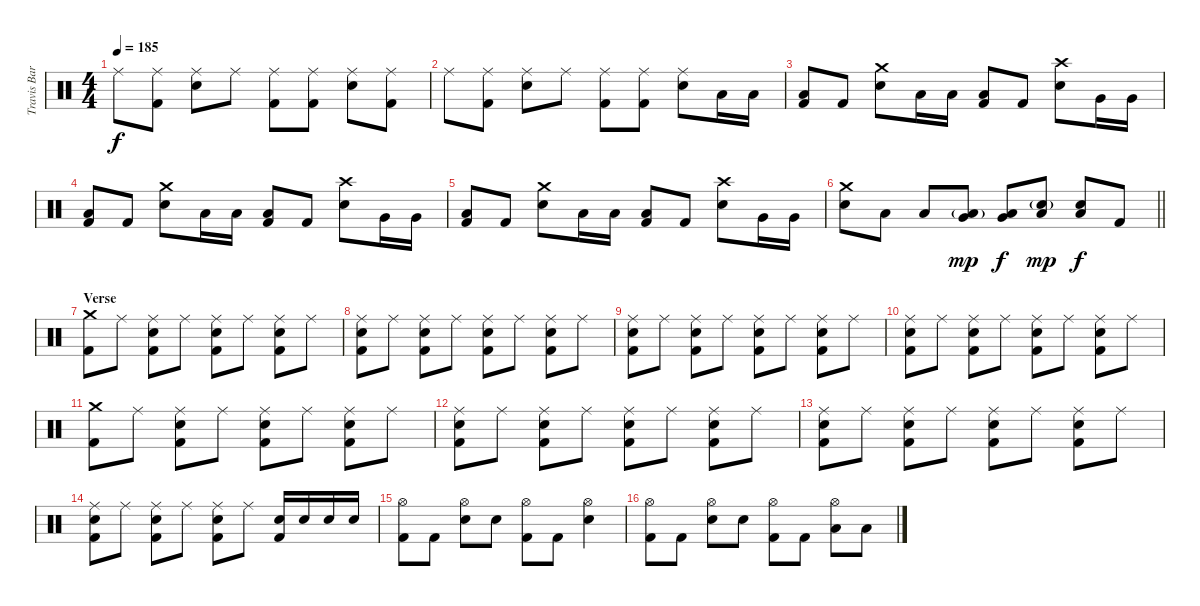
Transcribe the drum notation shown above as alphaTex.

\track ("Travis Barker - Drums" "Travis Bar") {instrument percussion}
\staff {score}
\articulation defaults
\ts (4 4)
\tempo 185
\clef neutral
\ks c "Ride (middle)".8{dy f}
("Ride (middle)" "Kick (hit) 2").8 ("Ride (middle)" "Electric Snare (hit)").8 "Ride (middle)".8 ("Ride (middle)" "Kick (hit) 2").8 ("Ride (middle)" "Kick (hit) 2").8 ("Ride (middle)" "Electric Snare (hit)").8 ("Ride (middle)" "Kick (hit) 2").8 |
"Ride (middle)".8 ("Ride (middle)" "Kick (hit) 2").8 ("Ride (middle)" "Electric Snare (hit)").8 "Ride (middle)".8 ("Ride (middle)" "Kick (hit) 2").8 ("Ride (middle)" "Kick (hit) 2").8 ("Ride (middle)" "Electric Snare (hit)").8 "Low Tom (hit)".16 "Low Tom (hit)".16 |
("Low Floor Tom (hit)" "Kick (hit) 2").8 "Kick (hit) 2".8 ("Crash medium (hit)" "Electric Snare (hit)").8 "Low Tom (hit)".16 "Low Tom (hit)".16 ("Low Floor Tom (hit)" "Kick (hit) 2").8 "Kick (hit) 2".8 ("Crash high (hit)" "Electric Snare (hit)").8 "Very Low Tom (hit)".16 "Very Low Tom (hit)".16 |
("Low Floor Tom (hit)" "Kick (hit) 2").8 "Kick (hit) 2".8 ("Crash medium (hit)" "Electric Snare (hit)").8 "Low Tom (hit)".16 "Low Tom (hit)".16 ("Low Floor Tom (hit)" "Kick (hit) 2").8 "Kick (hit) 2".8 ("Crash high (hit)" "Electric Snare (hit)").8 "Very Low Tom (hit)".16 "Very Low Tom (hit)".16 |
("Low Floor Tom (hit)" "Kick (hit) 2").8 "Kick (hit) 2".8 ("Crash medium (hit)" "Electric Snare (hit)").8 "Low Tom (hit)".16 "Low Tom (hit)".16 ("Low Floor Tom (hit)" "Kick (hit) 2").8 "Kick (hit) 2".8 ("Crash high (hit)" "Electric Snare (hit)").8 "Very Low Tom (hit)".16 "Very Low Tom (hit)".16 |
\barLineRight lightlight
("Crash medium (hit)" "Electric Snare (hit)").8 "Low Floor Tom (hit)".8 "Low Floor Tom (hit)".8 ("Low Tom (hit)"{g} "Very Low Tom (hit)").8{dy mp} ("Low Tom (hit)" "Very Low Tom (hit)").8{dy f} ("Electric Snare (hit)"{g} "Low Tom (hit)").8{dy mp} ("Electric Snare (hit)" "Low Tom (hit)").8{dy f} "Kick (hit) 2".8 |
\section ("" "Verse")
("Crash medium (hit)" "Kick (hit) 2").8 "Ride (middle)".8 ("Ride (middle)" "Electric Snare (hit)" "Kick (hit) 2").8 "Ride (middle)".8 ("Ride (middle)" "Electric Snare (hit)" "Kick (hit) 2").8 "Ride (middle)".8 ("Ride (middle)" "Electric Snare (hit)" "Kick (hit) 2").8 "Ride (middle)".8 |
("Ride (middle)" "Electric Snare (hit)" "Kick (hit) 2").8 "Ride (middle)".8 ("Ride (middle)" "Electric Snare (hit)" "Kick (hit) 2").8 "Ride (middle)".8 ("Ride (middle)" "Electric Snare (hit)" "Kick (hit) 2").8 "Ride (middle)".8 ("Ride (middle)" "Electric Snare (hit)" "Kick (hit) 2").8 "Ride (middle)".8 |
("Ride (middle)" "Electric Snare (hit)" "Kick (hit) 2").8 "Ride (middle)".8 ("Ride (middle)" "Electric Snare (hit)" "Kick (hit) 2").8 "Ride (middle)".8 ("Ride (middle)" "Electric Snare (hit)" "Kick (hit) 2").8 "Ride (middle)".8 ("Ride (middle)" "Electric Snare (hit)" "Kick (hit) 2").8 "Ride (middle)".8 |
("Ride (middle)" "Electric Snare (hit)" "Kick (hit) 2").8 "Ride (middle)".8 ("Ride (middle)" "Electric Snare (hit)" "Kick (hit) 2").8 "Ride (middle)".8 ("Ride (middle)" "Electric Snare (hit)" "Kick (hit) 2").8 "Ride (middle)".8 ("Ride (middle)" "Electric Snare (hit)" "Kick (hit) 2").8 "Ride (middle)".8 |
("Crash medium (hit)" "Kick (hit) 2").8 "Ride (middle)".8 ("Ride (middle)" "Electric Snare (hit)" "Kick (hit) 2").8 "Ride (middle)".8 ("Ride (middle)" "Electric Snare (hit)" "Kick (hit) 2").8 "Ride (middle)".8 ("Ride (middle)" "Electric Snare (hit)" "Kick (hit) 2").8 "Ride (middle)".8 |
("Ride (middle)" "Electric Snare (hit)" "Kick (hit) 2").8 "Ride (middle)".8 ("Ride (middle)" "Electric Snare (hit)" "Kick (hit) 2").8 "Ride (middle)".8 ("Ride (middle)" "Electric Snare (hit)" "Kick (hit) 2").8 "Ride (middle)".8 ("Ride (middle)" "Electric Snare (hit)" "Kick (hit) 2").8 "Ride (middle)".8 |
("Ride (middle)" "Electric Snare (hit)" "Kick (hit) 2").8 "Ride (middle)".8 ("Ride (middle)" "Electric Snare (hit)" "Kick (hit) 2").8 "Ride (middle)".8 ("Ride (middle)" "Electric Snare (hit)" "Kick (hit) 2").8 "Ride (middle)".8 ("Ride (middle)" "Electric Snare (hit)" "Kick (hit) 2").8 "Ride (middle)".8 |
("Ride (middle)" "Electric Snare (hit)" "Kick (hit) 2").8 "Ride (middle)".8 ("Ride (middle)" "Electric Snare (hit)" "Kick (hit) 2").8 "Ride (middle)".8 ("Ride (middle)" "Electric Snare (hit)" "Kick (hit) 2").8 "Ride (middle)".8 ("Electric Snare (hit)" "Kick (hit) 2").16 "Electric Snare (hit)".16 "Electric Snare (hit)".16 "Electric Snare (hit)".16 |
("Hi-Hat (open)" "Kick (hit) 2").8 "Kick (hit) 2".8 ("Hi-Hat (open)" "Electric Snare (hit)").8 "Electric Snare (hit)".8 ("Hi-Hat (open)" "Kick (hit) 2").8 "Kick (hit) 2".8 ("Hi-Hat (open)" "Electric Snare (hit)").4 |
("Hi-Hat (open)" "Kick (hit) 2").8 "Kick (hit) 2".8 ("Hi-Hat (open)" "Electric Snare (hit)").8 "Electric Snare (hit)".8 ("Hi-Hat (open)" "Kick (hit) 2").8 "Kick (hit) 2".8 ("Hi-Hat (open)" "Low Tom (hit)").8 "Low Tom (hit)".8
